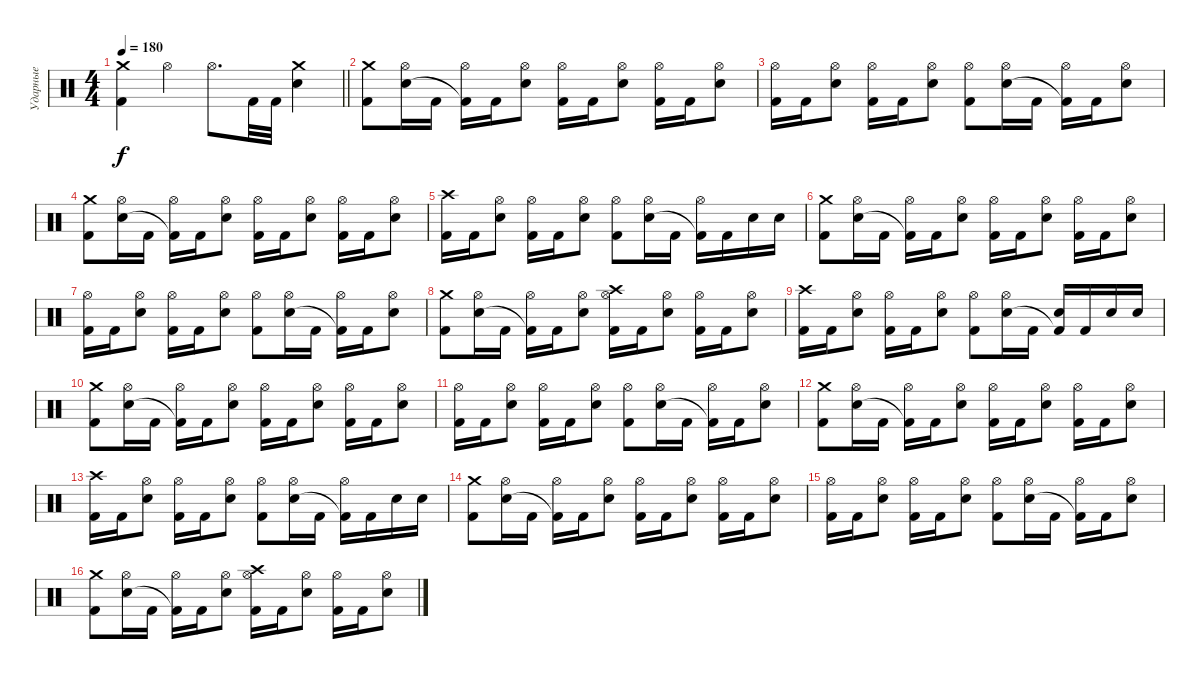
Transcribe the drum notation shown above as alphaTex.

\track ("Ударные" "Ударные") {instrument percussion}
\staff {score}
\articulation defaults
\ts (4 4)
\tempo 180
\clef neutral
\barLineRight lightlight
\ks c
("Kick (hit) 2" "Crash medium (hit)").4{dy f} "Hi-Hat (open)".4 "Hi-Hat (open)".8{d} "Kick (hit) 2".32 "Kick (hit) 2".32 ("Crash medium (hit)" "Snare (hit) 2").4 |
("Crash medium (hit)" "Kick (hit) 2").8 ("Hi-Hat (open)" "Snare (hit) 2").16 "Kick (hit) 2".16 ("Hi-Hat (open)" "Kick (hit) 2"{t}).16 "Kick (hit) 2".16 ("Hi-Hat (open)" "Snare (hit) 2").8 ("Hi-Hat (open)" "Kick (hit) 2").16 "Kick (hit) 2".16 ("Hi-Hat (open)" "Snare (hit) 2").8 ("Hi-Hat (open)" "Kick (hit) 2").16 "Kick (hit) 2".16 ("Hi-Hat (open)" "Snare (hit) 2").8 |
("Hi-Hat (open)" "Kick (hit) 2").16 "Kick (hit) 2".16 ("Hi-Hat (open)" "Snare (hit) 2").8 ("Hi-Hat (open)" "Kick (hit) 2").16 "Kick (hit) 2".16 ("Hi-Hat (open)" "Snare (hit) 2").8 ("Hi-Hat (open)" "Kick (hit) 2").8 ("Hi-Hat (open)" "Snare (hit) 2").16 "Kick (hit) 2".16 ("Hi-Hat (open)" "Kick (hit) 2"{t}).16 "Kick (hit) 2".16 ("Hi-Hat (open)" "Snare (hit) 2").8 |
("Crash medium (hit)" "Kick (hit) 2").8 ("Hi-Hat (open)" "Snare (hit) 2").16 "Kick (hit) 2".16 ("Hi-Hat (open)" "Kick (hit) 2"{t}).16 "Kick (hit) 2".16 ("Hi-Hat (open)" "Snare (hit) 2").8 ("Hi-Hat (open)" "Kick (hit) 2").16 "Kick (hit) 2".16 ("Hi-Hat (open)" "Snare (hit) 2").8 ("Hi-Hat (open)" "Kick (hit) 2").16 "Kick (hit) 2".16 ("Hi-Hat (open)" "Snare (hit) 2").8 |
("Crash high (hit)" "Kick (hit) 2").16 "Kick (hit) 2".16 ("Hi-Hat (open)" "Snare (hit) 2").8 ("Hi-Hat (open)" "Kick (hit) 2").16 "Kick (hit) 2".16 ("Hi-Hat (open)" "Snare (hit) 2").8 ("Hi-Hat (open)" "Kick (hit) 2").8 ("Hi-Hat (open)" "Snare (hit) 2").16 "Kick (hit) 2".16 ("Hi-Hat (open)" "Kick (hit) 2"{t}).16 "Kick (hit) 2".16 "Snare (hit) 2".16 "Snare (hit) 2".16 |
("Crash medium (hit)" "Kick (hit) 2").8 ("Hi-Hat (open)" "Snare (hit) 2").16 "Kick (hit) 2".16 ("Hi-Hat (open)" "Kick (hit) 2"{t}).16 "Kick (hit) 2".16 ("Hi-Hat (open)" "Snare (hit) 2").8 ("Hi-Hat (open)" "Kick (hit) 2").16 "Kick (hit) 2".16 ("Hi-Hat (open)" "Snare (hit) 2").8 ("Hi-Hat (open)" "Kick (hit) 2").16 "Kick (hit) 2".16 ("Hi-Hat (open)" "Snare (hit) 2").8 |
("Hi-Hat (open)" "Kick (hit) 2").16 "Kick (hit) 2".16 ("Hi-Hat (open)" "Snare (hit) 2").8 ("Hi-Hat (open)" "Kick (hit) 2").16 "Kick (hit) 2".16 ("Hi-Hat (open)" "Snare (hit) 2").8 ("Hi-Hat (open)" "Kick (hit) 2").8 ("Hi-Hat (open)" "Snare (hit) 2").16 "Kick (hit) 2".16 ("Hi-Hat (open)" "Kick (hit) 2"{t}).16 "Kick (hit) 2".16 ("Hi-Hat (open)" "Snare (hit) 2").8 |
("Crash medium (hit)" "Kick (hit) 2").8 ("Hi-Hat (open)" "Snare (hit) 2").16 "Kick (hit) 2".16 ("Hi-Hat (open)" "Kick (hit) 2"{t}).16 "Kick (hit) 2".16 ("Hi-Hat (open)" "Snare (hit) 2").8 ("Crash high (hit)" "Hi-Hat (open)" "Kick (hit) 2").16 "Kick (hit) 2".16 ("Hi-Hat (open)" "Snare (hit) 2").8 ("Hi-Hat (open)" "Kick (hit) 2").16 "Kick (hit) 2".16 ("Hi-Hat (open)" "Snare (hit) 2").8 |
("Crash high (hit)" "Kick (hit) 2").16 "Kick (hit) 2".16 ("Hi-Hat (open)" "Snare (hit) 2").8 ("Hi-Hat (open)" "Kick (hit) 2").16 "Kick (hit) 2".16 ("Hi-Hat (open)" "Snare (hit) 2").8 ("Hi-Hat (open)" "Kick (hit) 2").8 ("Hi-Hat (open)" "Snare (hit) 2").16 "Kick (hit) 2".16 ("Snare (hit) 2" "Kick (hit) 2"{t}).16 "Kick (hit) 2".16 "Snare (hit) 2".16 "Snare (hit) 2".16 |
("Crash medium (hit)" "Kick (hit) 2").8 ("Hi-Hat (open)" "Snare (hit) 2").16 "Kick (hit) 2".16 ("Hi-Hat (open)" "Kick (hit) 2"{t}).16 "Kick (hit) 2".16 ("Hi-Hat (open)" "Snare (hit) 2").8 ("Hi-Hat (open)" "Kick (hit) 2").16 "Kick (hit) 2".16 ("Hi-Hat (open)" "Snare (hit) 2").8 ("Hi-Hat (open)" "Kick (hit) 2").16 "Kick (hit) 2".16 ("Hi-Hat (open)" "Snare (hit) 2").8 |
("Hi-Hat (open)" "Kick (hit) 2").16 "Kick (hit) 2".16 ("Hi-Hat (open)" "Snare (hit) 2").8 ("Hi-Hat (open)" "Kick (hit) 2").16 "Kick (hit) 2".16 ("Hi-Hat (open)" "Snare (hit) 2").8 ("Hi-Hat (open)" "Kick (hit) 2").8 ("Hi-Hat (open)" "Snare (hit) 2").16 "Kick (hit) 2".16 ("Hi-Hat (open)" "Kick (hit) 2"{t}).16 "Kick (hit) 2".16 ("Hi-Hat (open)" "Snare (hit) 2").8 |
("Crash medium (hit)" "Kick (hit) 2").8 ("Hi-Hat (open)" "Snare (hit) 2").16 "Kick (hit) 2".16 ("Hi-Hat (open)" "Kick (hit) 2"{t}).16 "Kick (hit) 2".16 ("Hi-Hat (open)" "Snare (hit) 2").8 ("Hi-Hat (open)" "Kick (hit) 2").16 "Kick (hit) 2".16 ("Hi-Hat (open)" "Snare (hit) 2").8 ("Hi-Hat (open)" "Kick (hit) 2").16 "Kick (hit) 2".16 ("Hi-Hat (open)" "Snare (hit) 2").8 |
("Crash high (hit)" "Kick (hit) 2").16 "Kick (hit) 2".16 ("Hi-Hat (open)" "Snare (hit) 2").8 ("Hi-Hat (open)" "Kick (hit) 2").16 "Kick (hit) 2".16 ("Hi-Hat (open)" "Snare (hit) 2").8 ("Hi-Hat (open)" "Kick (hit) 2").8 ("Hi-Hat (open)" "Snare (hit) 2").16 "Kick (hit) 2".16 ("Hi-Hat (open)" "Kick (hit) 2"{t}).16 "Kick (hit) 2".16 "Snare (hit) 2".16 "Snare (hit) 2".16 |
("Crash medium (hit)" "Kick (hit) 2").8 ("Hi-Hat (open)" "Snare (hit) 2").16 "Kick (hit) 2".16 ("Hi-Hat (open)" "Kick (hit) 2"{t}).16 "Kick (hit) 2".16 ("Hi-Hat (open)" "Snare (hit) 2").8 ("Hi-Hat (open)" "Kick (hit) 2").16 "Kick (hit) 2".16 ("Hi-Hat (open)" "Snare (hit) 2").8 ("Hi-Hat (open)" "Kick (hit) 2").16 "Kick (hit) 2".16 ("Hi-Hat (open)" "Snare (hit) 2").8 |
("Hi-Hat (open)" "Kick (hit) 2").16 "Kick (hit) 2".16 ("Hi-Hat (open)" "Snare (hit) 2").8 ("Hi-Hat (open)" "Kick (hit) 2").16 "Kick (hit) 2".16 ("Hi-Hat (open)" "Snare (hit) 2").8 ("Hi-Hat (open)" "Kick (hit) 2").8 ("Hi-Hat (open)" "Snare (hit) 2").16 "Kick (hit) 2".16 ("Hi-Hat (open)" "Kick (hit) 2"{t}).16 "Kick (hit) 2".16 ("Hi-Hat (open)" "Snare (hit) 2").8 |
("Crash medium (hit)" "Kick (hit) 2").8 ("Hi-Hat (open)" "Snare (hit) 2").16 "Kick (hit) 2".16 ("Hi-Hat (open)" "Kick (hit) 2"{t}).16 "Kick (hit) 2".16 ("Hi-Hat (open)" "Snare (hit) 2").8 ("Crash high (hit)" "Hi-Hat (open)" "Kick (hit) 2").16 "Kick (hit) 2".16 ("Hi-Hat (open)" "Snare (hit) 2").8 ("Hi-Hat (open)" "Kick (hit) 2").16 "Kick (hit) 2".16 ("Hi-Hat (open)" "Snare (hit) 2").8
